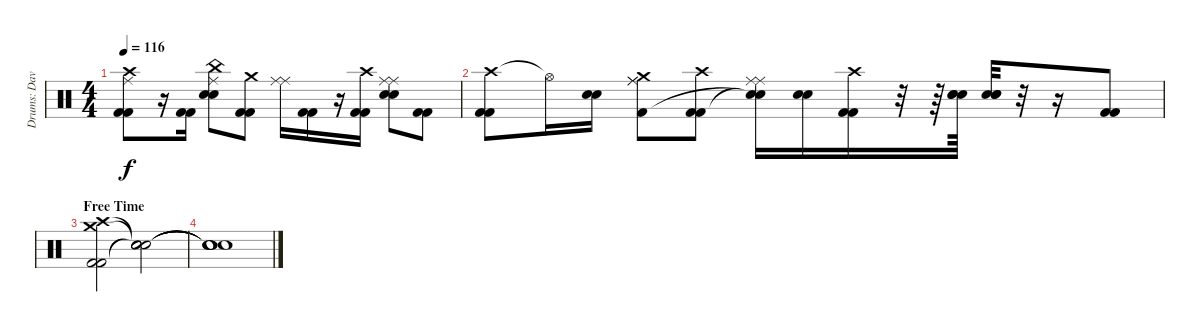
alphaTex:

\track ("Drums: Dave Krusen" "Drums: Dav") {instrument percussion}
\staff {score}
\articulation defaults
\ts (4 4)
\tempo 116
\clef neutral
\ks c
("Ride (middle)" "Crash high (hit)" "Kick (hit) 2" "Kick (hit) 2").8{dy f} r.16 ("Kick (hit) 2" "Kick (hit) 2").16 ("Ride (middle)" "China (hit)" "Electric Snare (hit)" "Electric Snare (hit)").8 ("Crash medium (hit)" "Kick (hit) 2" "Kick (hit) 2").8 ("Ride (middle)" "Ride (middle)").16 ("Kick (hit) 2" "Kick (hit) 2").16 r.16 ("Crash high (hit)" "Kick (hit) 2" "Kick (hit) 2").16 ("Ride (middle)" "Ride (middle)" "Electric Snare (hit)" "Electric Snare (hit)").8 ("Kick (hit) 2" "Kick (hit) 2").8 |
("Crash high (hit)" "Kick (hit) 2" "Kick (hit) 2").8 "Hi-Hat (open)"{t}.16 ("Electric Snare (hit)" "Electric Snare (hit)").16 ("Ride (middle)" "Ride (middle)" "Crash medium (hit)" "Kick (hit) 2").8 ("Crash high (hit)" "Kick (hit) 2" "Kick (hit) 2").8 ("Ride (middle)" "Ride (middle)" "Electric Snare (hit)"{t} "Snare (hit)"{t}).16 ("Electric Snare (hit)" "Electric Snare (hit)").16 ("Crash high (hit)" "Kick (hit) 2" "Kick (hit) 2").16 r.32 r.64 ("Electric Snare (hit)" "Electric Snare (hit)" "Electric Snare (hit)").64 ("Electric Snare (hit)" "Electric Snare (hit)" "Electric Snare (hit)").32 r.32 r.16 ("Kick (hit) 2" "Kick (hit) 2").8 |
\section ("" "Free Time")
("Crash medium (hit)" "Crash high (hit)" "Kick (hit) 2" "Kick (hit) 2").2 ("Snare (hit)"{t} "Snare (hit)"{t} "Snare (hit)"{t} "Snare (hit)"{t}).2 |
("Snare (hit)"{t} "Snare (hit)"{t} "Snare (hit)"{t} "Snare (hit)"{t}).1
